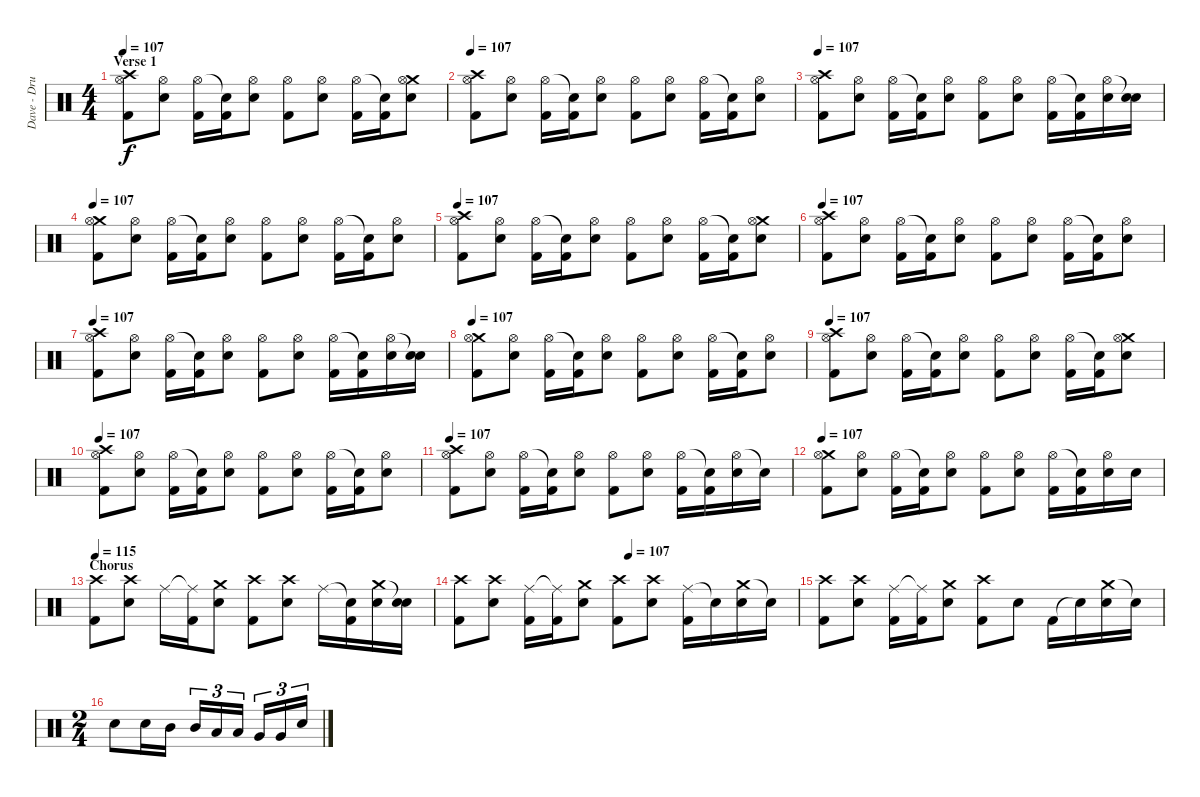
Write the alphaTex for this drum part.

\track ("Dave - Drums" "Dave - Dru") {instrument percussion}
\staff {score}
\articulation defaults
\ts (4 4)
\section ("" "Verse 1")
\tempo 107
\clef neutral
\ks c
("Crash high (hit)" "Hi-Hat (open)" "Kick (hit) 2").8{dy f} ("Hi-Hat (open)" "Electric Snare (hit)").8 ("Hi-Hat (open)" "Kick (hit) 2").16 ("Snare (hit)"{t} "Kick (hit) 2").16 ("Hi-Hat (open)" "Electric Snare (hit)").8 ("Hi-Hat (open)" "Kick (hit) 2").8 ("Hi-Hat (open)" "Electric Snare (hit)").8 ("Hi-Hat (open)" "Kick (hit) 2").16 ("Snare (hit)"{t} "Kick (hit) 2").16 ("Crash medium (hit)" "Hi-Hat (open)" "Electric Snare (hit)").8 |
\tempo 107
("Crash high (hit)" "Hi-Hat (open)" "Kick (hit) 2").8 ("Hi-Hat (open)" "Electric Snare (hit)").8 ("Hi-Hat (open)" "Kick (hit) 2").16 ("Snare (hit)"{t} "Kick (hit) 2").16 ("Hi-Hat (open)" "Electric Snare (hit)").8 ("Hi-Hat (open)" "Kick (hit) 2").8 ("Hi-Hat (open)" "Electric Snare (hit)").8 ("Hi-Hat (open)" "Kick (hit) 2").16 ("Snare (hit)"{t} "Kick (hit) 2").16 ("Hi-Hat (open)" "Electric Snare (hit)").8 |
\tempo 107
("Crash high (hit)" "Hi-Hat (open)" "Kick (hit) 2").8 ("Hi-Hat (open)" "Electric Snare (hit)").8 ("Hi-Hat (open)" "Kick (hit) 2").16 ("Snare (hit)"{t} "Kick (hit) 2").16 ("Hi-Hat (open)" "Electric Snare (hit)").8 ("Hi-Hat (open)" "Kick (hit) 2").8 ("Hi-Hat (open)" "Electric Snare (hit)").8 ("Hi-Hat (open)" "Kick (hit) 2").16 ("Snare (hit)"{t} "Kick (hit) 2").16 ("Hi-Hat (open)" "Electric Snare (hit)").16 ("Snare (hit)"{t} "Electric Snare (hit)").16 |
\tempo 107
("Crash medium (hit)" "Hi-Hat (open)" "Kick (hit) 2").8 ("Hi-Hat (open)" "Electric Snare (hit)").8 ("Hi-Hat (open)" "Kick (hit) 2").16 ("Snare (hit)"{t} "Kick (hit) 2").16 ("Hi-Hat (open)" "Electric Snare (hit)").8 ("Hi-Hat (open)" "Kick (hit) 2").8 ("Hi-Hat (open)" "Electric Snare (hit)").8 ("Hi-Hat (open)" "Kick (hit) 2").16 ("Snare (hit)"{t} "Kick (hit) 2").16 ("Hi-Hat (open)" "Electric Snare (hit)").8 |
\tempo 107
("Crash high (hit)" "Hi-Hat (open)" "Kick (hit) 2").8 ("Hi-Hat (open)" "Electric Snare (hit)").8 ("Hi-Hat (open)" "Kick (hit) 2").16 ("Snare (hit)"{t} "Kick (hit) 2").16 ("Hi-Hat (open)" "Electric Snare (hit)").8 ("Hi-Hat (open)" "Kick (hit) 2").8 ("Hi-Hat (open)" "Electric Snare (hit)").8 ("Hi-Hat (open)" "Kick (hit) 2").16 ("Snare (hit)"{t} "Kick (hit) 2").16 ("Crash medium (hit)" "Hi-Hat (open)" "Electric Snare (hit)").8 |
\tempo 107
("Crash high (hit)" "Hi-Hat (open)" "Kick (hit) 2").8 ("Hi-Hat (open)" "Electric Snare (hit)").8 ("Hi-Hat (open)" "Kick (hit) 2").16 ("Snare (hit)"{t} "Kick (hit) 2").16 ("Hi-Hat (open)" "Electric Snare (hit)").8 ("Hi-Hat (open)" "Kick (hit) 2").8 ("Hi-Hat (open)" "Electric Snare (hit)").8 ("Hi-Hat (open)" "Kick (hit) 2").16 ("Snare (hit)"{t} "Kick (hit) 2").16 ("Hi-Hat (open)" "Electric Snare (hit)").8 |
\tempo 107
("Crash high (hit)" "Hi-Hat (open)" "Kick (hit) 2").8 ("Hi-Hat (open)" "Electric Snare (hit)").8 ("Hi-Hat (open)" "Kick (hit) 2").16 ("Snare (hit)"{t} "Kick (hit) 2").16 ("Hi-Hat (open)" "Electric Snare (hit)").8 ("Hi-Hat (open)" "Kick (hit) 2").8 ("Hi-Hat (open)" "Electric Snare (hit)").8 ("Hi-Hat (open)" "Kick (hit) 2").16 ("Snare (hit)"{t} "Kick (hit) 2").16 ("Hi-Hat (open)" "Electric Snare (hit)").16 ("Snare (hit)"{t} "Electric Snare (hit)").16 |
\tempo 107
("Crash medium (hit)" "Hi-Hat (open)" "Kick (hit) 2").8 ("Hi-Hat (open)" "Electric Snare (hit)").8 ("Hi-Hat (open)" "Kick (hit) 2").16 ("Snare (hit)"{t} "Kick (hit) 2").16 ("Hi-Hat (open)" "Electric Snare (hit)").8 ("Hi-Hat (open)" "Kick (hit) 2").8 ("Hi-Hat (open)" "Electric Snare (hit)").8 ("Hi-Hat (open)" "Kick (hit) 2").16 ("Snare (hit)"{t} "Kick (hit) 2").16 ("Hi-Hat (open)" "Electric Snare (hit)").8 |
\tempo 107
("Crash high (hit)" "Hi-Hat (open)" "Kick (hit) 2").8 ("Hi-Hat (open)" "Electric Snare (hit)").8 ("Hi-Hat (open)" "Kick (hit) 2").16 ("Snare (hit)"{t} "Kick (hit) 2").16 ("Hi-Hat (open)" "Electric Snare (hit)").8 ("Hi-Hat (open)" "Kick (hit) 2").8 ("Hi-Hat (open)" "Electric Snare (hit)").8 ("Hi-Hat (open)" "Kick (hit) 2").16 ("Snare (hit)"{t} "Kick (hit) 2").16 ("Crash medium (hit)" "Hi-Hat (open)" "Electric Snare (hit)").8 |
\tempo 107
("Crash high (hit)" "Hi-Hat (open)" "Kick (hit) 2").8 ("Hi-Hat (open)" "Electric Snare (hit)").8 ("Hi-Hat (open)" "Kick (hit) 2").16 ("Snare (hit)"{t} "Kick (hit) 2").16 ("Hi-Hat (open)" "Electric Snare (hit)").8 ("Hi-Hat (open)" "Kick (hit) 2").8 ("Hi-Hat (open)" "Electric Snare (hit)").8 ("Hi-Hat (open)" "Kick (hit) 2").16 ("Snare (hit)"{t} "Kick (hit) 2").16 ("Hi-Hat (open)" "Electric Snare (hit)").8 |
\tempo 107
("Crash high (hit)" "Hi-Hat (open)" "Kick (hit) 2").8 ("Hi-Hat (open)" "Electric Snare (hit)").8 ("Hi-Hat (open)" "Kick (hit) 2").16 ("Snare (hit)"{t} "Kick (hit) 2").16 ("Hi-Hat (open)" "Electric Snare (hit)").8 ("Hi-Hat (open)" "Kick (hit) 2").8 ("Hi-Hat (open)" "Electric Snare (hit)").8 ("Hi-Hat (open)" "Kick (hit) 2").16 ("Snare (hit)"{t} "Kick (hit) 2").16 ("Hi-Hat (open)" "Electric Snare (hit)").16 "Snare (hit)"{t}.16 |
\tempo 107
("Crash medium (hit)" "Hi-Hat (open)" "Kick (hit) 2").8 ("Hi-Hat (open)" "Electric Snare (hit)").8 ("Hi-Hat (open)" "Kick (hit) 2").16 ("Snare (hit)"{t} "Kick (hit) 2").16 ("Hi-Hat (open)" "Electric Snare (hit)").8 ("Hi-Hat (open)" "Kick (hit) 2").8 ("Hi-Hat (open)" "Electric Snare (hit)").8 ("Hi-Hat (open)" "Kick (hit) 2").16 ("Snare (hit)"{t} "Kick (hit) 2").16 ("Hi-Hat (open)" "Electric Snare (hit)").16 "Electric Snare (hit)".16 |
\section ("" "Chorus")
\tempo 95
\tempo 115
("Crash high (hit)" "Kick (hit) 2").8 ("Crash high (hit)" "Electric Snare (hit)").8 "Ride (middle)".16 ("Ride (middle)"{t} "Kick (hit) 2").16 ("Crash medium (hit)" "Electric Snare (hit)").8 ("Crash high (hit)" "Kick (hit) 2").8 ("Crash high (hit)" "Electric Snare (hit)").8 "Ride (middle)".16 ("Snare (hit)"{t} "Kick (hit) 2").16 ("Crash medium (hit)" "Electric Snare (hit)").16 ("Snare (hit)"{t} "Electric Snare (hit)").16 |
\tempo (107 0.5)
("Crash high (hit)" "Kick (hit) 2").8 ("Crash high (hit)" "Electric Snare (hit)").8 ("Ride (middle)" "Kick (hit) 2").16 ("Ride (middle)"{t} "Kick (hit) 2").16 ("Crash medium (hit)" "Electric Snare (hit)").8 ("Crash high (hit)" "Kick (hit) 2").8 ("Crash high (hit)" "Electric Snare (hit)").8 ("Ride (middle)" "Kick (hit) 2").16 "Snare (hit)"{t}.16 ("Crash medium (hit)" "Electric Snare (hit)").16 "Snare (hit)"{t}.16 |
("Crash high (hit)" "Kick (hit) 2").8 ("Crash high (hit)" "Electric Snare (hit)").8 ("Ride (middle)" "Kick (hit) 2").16 ("Ride (middle)"{t} "Kick (hit) 2").16 ("Crash medium (hit)" "Electric Snare (hit)").8 ("Crash high (hit)" "Kick (hit) 2").8 "Electric Snare (hit)".8 "Kick (hit) 2".16 "Snare (hit)"{t}.16 ("Crash medium (hit)" "Electric Snare (hit)").16 "Snare (hit)"{t}.16 |
\ts (2 4)
"Electric Snare (hit)".8 "Electric Snare (hit)".16 "Mid Tom (hit)".16 "Mid Tom (hit)".16{tu (3 2)} "Low Tom (hit)".16{tu (3 2)} "Low Tom (hit)".16{tu (3 2)} "Very Low Tom (hit)".16{tu (3 2)} "Very Low Tom (hit)".16{tu (3 2)} "Electric Snare (hit)".16{tu (3 2)}
